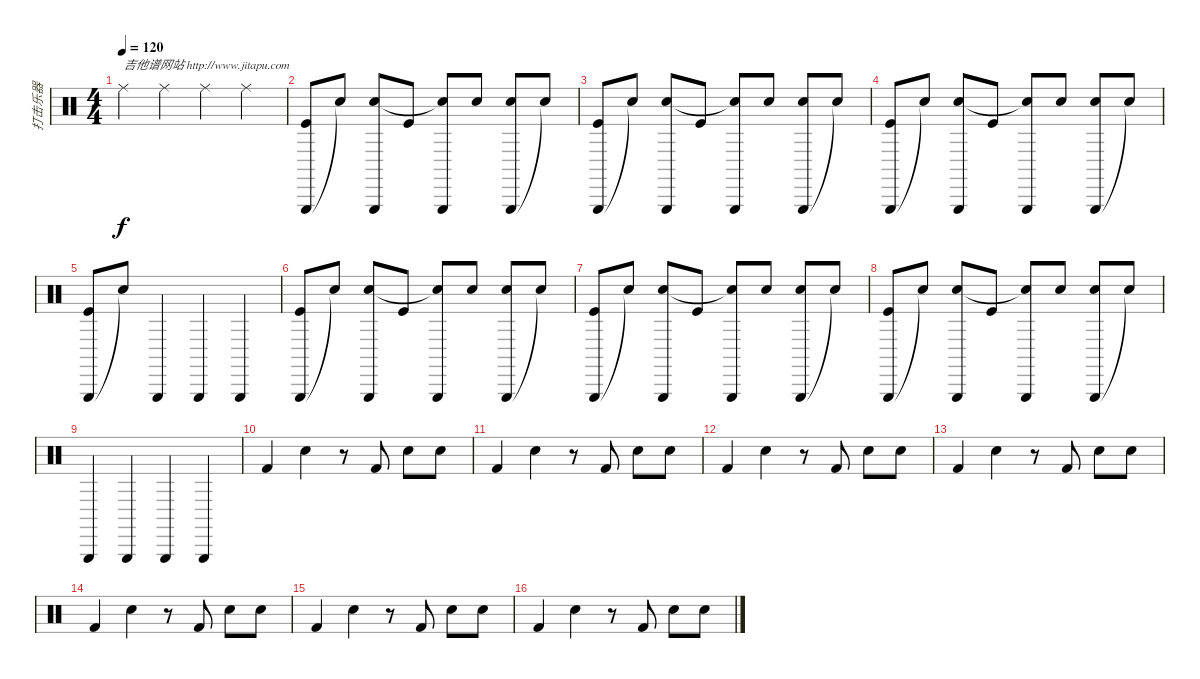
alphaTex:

\track ("打击乐器" "打击乐器") {instrument percussion}
\staff {score}
\articulation defaults
\ts (4 4)
\tempo 120
\clef neutral
\ks c "Ride (middle)".4{txt "吉他谱网站 http://www.jitapu.com" dy f} "Ride (middle)".4 "Ride (middle)".4 "Ride (middle)".4
|
("Triangle (hit)" "Kick (hit)").8 "Electric Snare (hit)"{t}.8 ("Triangle (hit)" "Electric Snare (hit)").8 "Kick (hit)".8 ("Triangle (hit)" "Electric Snare (hit)"{t}).8 "Electric Snare (hit)".8 ("Triangle (hit)" "Electric Snare (hit)").8 "Electric Snare (hit)"{t}.8 |
("Triangle (hit)" "Kick (hit)").8 "Electric Snare (hit)"{t}.8 ("Triangle (hit)" "Electric Snare (hit)").8 "Kick (hit)".8 ("Triangle (hit)" "Electric Snare (hit)"{t}).8 "Electric Snare (hit)".8 ("Triangle (hit)" "Electric Snare (hit)").8 "Electric Snare (hit)"{t}.8 |
("Triangle (hit)" "Kick (hit)").8 "Electric Snare (hit)"{t}.8 ("Triangle (hit)" "Electric Snare (hit)").8 "Kick (hit)".8 ("Triangle (hit)" "Electric Snare (hit)"{t}).8 "Electric Snare (hit)".8 ("Triangle (hit)" "Electric Snare (hit)").8 "Electric Snare (hit)"{t}.8 |
("Triangle (hit)" "Kick (hit)").8 "Snare (hit)"{t}.8 "Triangle (hit)".4 "Triangle (hit)".4 "Triangle (hit)".4 |
("Triangle (hit)" "Kick (hit)").8 "Electric Snare (hit)"{t}.8 ("Triangle (hit)" "Electric Snare (hit)").8 "Kick (hit)".8 ("Triangle (hit)" "Electric Snare (hit)"{t}).8 "Electric Snare (hit)".8 ("Triangle (hit)" "Electric Snare (hit)").8 "Electric Snare (hit)"{t}.8 |
("Triangle (hit)" "Kick (hit)").8 "Electric Snare (hit)"{t}.8 ("Triangle (hit)" "Electric Snare (hit)").8 "Kick (hit)".8 ("Triangle (hit)" "Electric Snare (hit)"{t}).8 "Electric Snare (hit)".8 ("Triangle (hit)" "Electric Snare (hit)").8 "Electric Snare (hit)"{t}.8 |
("Triangle (hit)" "Kick (hit)").8 "Electric Snare (hit)"{t}.8 ("Triangle (hit)" "Electric Snare (hit)").8 "Kick (hit)".8 ("Triangle (hit)" "Electric Snare (hit)"{t}).8 "Electric Snare (hit)".8 ("Triangle (hit)" "Electric Snare (hit)").8 "Electric Snare (hit)"{t}.8 |
"Triangle (hit)".4 "Triangle (hit)".4 "Triangle (hit)".4 "Triangle (hit)".4 |
"Kick (hit) 2".4 "Snare (hit) 2".4 r.8 "Kick (hit) 2".8 "Snare (hit) 2".8 "Snare (hit) 2".8 |
"Kick (hit) 2".4 "Snare (hit) 2".4 r.8 "Kick (hit) 2".8 "Snare (hit) 2".8 "Snare (hit) 2".8 |
"Kick (hit) 2".4 "Snare (hit) 2".4 r.8 "Kick (hit) 2".8 "Snare (hit) 2".8 "Snare (hit) 2".8 |
"Kick (hit) 2".4 "Snare (hit) 2".4 r.8 "Kick (hit) 2".8 "Snare (hit) 2".8 "Snare (hit) 2".8 |
"Kick (hit) 2".4 "Snare (hit) 2".4 r.8 "Kick (hit) 2".8 "Snare (hit) 2".8 "Snare (hit) 2".8 |
"Kick (hit) 2".4 "Snare (hit) 2".4 r.8 "Kick (hit) 2".8 "Snare (hit) 2".8 "Snare (hit) 2".8 |
"Kick (hit) 2".4 "Snare (hit) 2".4 r.8 "Kick (hit) 2".8 "Snare (hit) 2".8 "Snare (hit) 2".8
